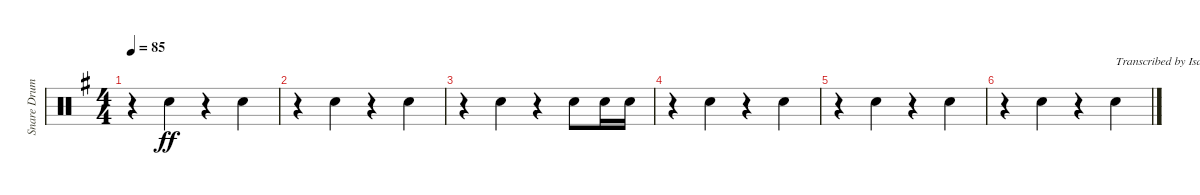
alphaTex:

\track ("Snare Drum" "Snare Drum") {instrument percussion}
\staff {score}
\articulation defaults
\ts (4 4)
\tempo 85
\clef neutral
\ks g
r.4{dy ff beam merge} "Electric Snare (hit)".4 r.4{beam merge} "Electric Snare (hit)".4 |
r.4{beam merge} "Electric Snare (hit)".4 r.4{beam merge} "Electric Snare (hit)".4 |
r.4{beam merge} "Electric Snare (hit)".4 r.4 "Electric Snare (hit)".8 "Electric Snare (hit)".16 "Electric Snare (hit)".16 |
r.4{beam merge} "Electric Snare (hit)".4 r.4{beam merge} "Electric Snare (hit)".4 |
r.4{beam merge} "Electric Snare (hit)".4 r.4{beam merge} "Electric Snare (hit)".4 |
r.4{beam merge} "Electric Snare (hit)".4 r.4{beam merge} "Electric Snare (hit)".4{txt "Transcribed by Isaias Garcia (TexasFury)"}
